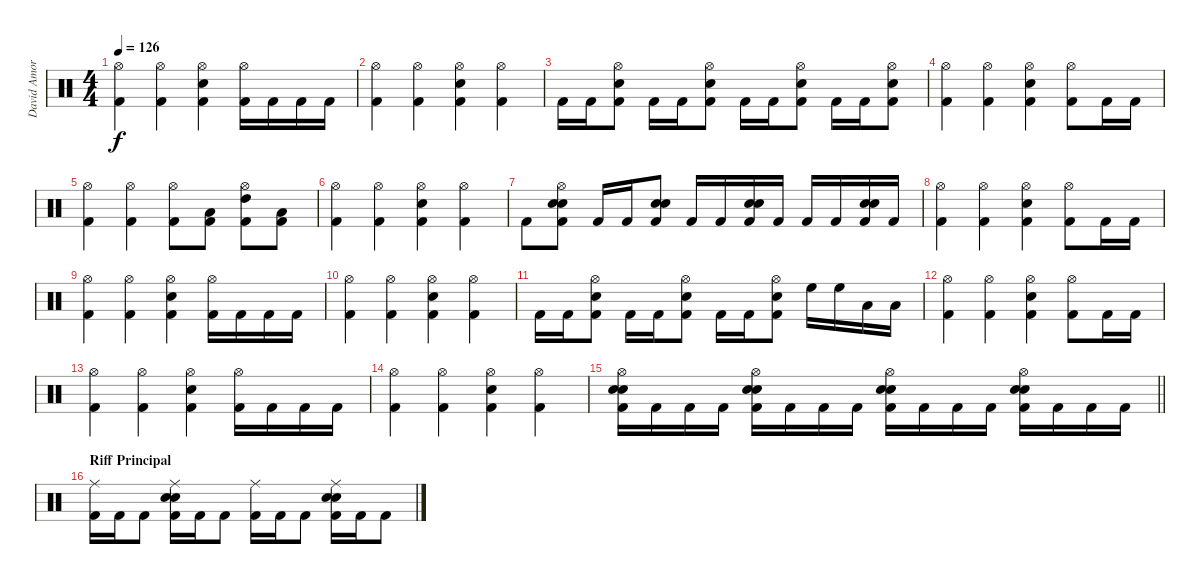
\track ("David Amore" "David Amor") {instrument percussion}
\staff {score}
\articulation defaults
\ts (4 4)
\tempo 126
\clef neutral
\ks c
("Hi-Hat (open)" "Kick (hit) 2").4{dy f} ("Hi-Hat (open)" "Kick (hit) 2").4 ("Hi-Hat (open)" "Snare (hit) 2" "Kick (hit) 2").4 ("Hi-Hat (open)" "Kick (hit) 2").16 "Kick (hit) 2".16 "Kick (hit) 2".16 "Kick (hit) 2".16 |
("Hi-Hat (open)" "Kick (hit) 2").4 ("Hi-Hat (open)" "Kick (hit) 2").4 ("Hi-Hat (open)" "Snare (hit) 2" "Kick (hit) 2").4 ("Hi-Hat (open)" "Kick (hit) 2").4 |
"Kick (hit) 2".16 "Kick (hit) 2".16 ("Hi-Hat (open)" "Electric Snare (hit)" "Kick (hit) 2").8 "Kick (hit) 2".16 "Kick (hit) 2".16 ("Hi-Hat (open)" "Electric Snare (hit)" "Kick (hit) 2").8 "Kick (hit) 2".16 "Kick (hit) 2".16 ("Hi-Hat (open)" "Electric Snare (hit)" "Kick (hit) 2").8 "Kick (hit) 2".16 "Kick (hit) 2".16 ("Hi-Hat (open)" "Electric Snare (hit)" "Kick (hit) 2").8 |
("Hi-Hat (open)" "Kick (hit) 2").4 ("Hi-Hat (open)" "Kick (hit) 2").4 ("Hi-Hat (open)" "Snare (hit) 2" "Kick (hit) 2").4 ("Hi-Hat (open)" "Kick (hit) 2").8 "Kick (hit) 2".16 "Kick (hit) 2".16 |
("Hi-Hat (open)" "Kick (hit) 2").4 ("Hi-Hat (open)" "Kick (hit) 2").4 ("Hi-Hat (open)" "Kick (hit) 2").8 ("Low Floor Tom (hit)" "Kick (hit) 2").8 ("Hi-Hat (open)" "High Tom (hit)" "Kick (hit) 2").8 ("Low Floor Tom (hit)" "Kick (hit) 2").8 |
("Hi-Hat (open)" "Kick (hit) 2").4 ("Hi-Hat (open)" "Kick (hit) 2").4 ("Hi-Hat (open)" "Snare (hit) 2" "Kick (hit) 2").4 ("Hi-Hat (open)" "Kick (hit) 2").4 |
"Kick (hit) 2".8 ("Hi-Hat (open)" "Snare (hit) 2" "Electric Snare (hit)" "Kick (hit) 2").8 "Kick (hit) 2".16 "Kick (hit) 2".16 ("Electric Snare (hit)" "Snare (hit) 2" "Kick (hit) 2").8 "Kick (hit) 2".16 "Kick (hit) 2".16 ("Electric Snare (hit)" "Snare (hit) 2" "Kick (hit) 2").16 "Kick (hit) 2".16 "Kick (hit) 2".16 "Kick (hit) 2".16 ("Electric Snare (hit)" "Snare (hit) 2" "Kick (hit) 2").16 "Kick (hit) 2".16 |
("Hi-Hat (open)" "Kick (hit) 2").4 ("Hi-Hat (open)" "Kick (hit) 2").4 ("Hi-Hat (open)" "Snare (hit) 2" "Kick (hit) 2").4 ("Hi-Hat (open)" "Kick (hit) 2").8 "Kick (hit) 2".16 "Kick (hit) 2".16 |
("Hi-Hat (open)" "Kick (hit) 2").4 ("Hi-Hat (open)" "Kick (hit) 2").4 ("Hi-Hat (open)" "Snare (hit) 2" "Kick (hit) 2").4 ("Hi-Hat (open)" "Kick (hit) 2").16 "Kick (hit) 2".16 "Kick (hit) 2".16 "Kick (hit) 2".16 |
("Hi-Hat (open)" "Kick (hit) 2").4 ("Hi-Hat (open)" "Kick (hit) 2").4 ("Hi-Hat (open)" "Snare (hit) 2" "Kick (hit) 2").4 ("Hi-Hat (open)" "Kick (hit) 2").4 |
"Kick (hit) 2".16 "Kick (hit) 2".16 ("Hi-Hat (open)" "Electric Snare (hit)" "Kick (hit) 2").8 "Kick (hit) 2".16 "Kick (hit) 2".16 ("Hi-Hat (open)" "Electric Snare (hit)" "Kick (hit) 2").8 "Kick (hit) 2".16 "Kick (hit) 2".16 ("Hi-Hat (open)" "Electric Snare (hit)" "Kick (hit) 2").8 "High Floor Tom (hit)".16 "High Floor Tom (hit)".16 "Low Tom (hit)".16 "Low Tom (hit)".16 |
("Hi-Hat (open)" "Kick (hit) 2").4 ("Hi-Hat (open)" "Kick (hit) 2").4 ("Hi-Hat (open)" "Snare (hit) 2" "Kick (hit) 2").4 ("Hi-Hat (open)" "Kick (hit) 2").8 "Kick (hit) 2".16 "Kick (hit) 2".16 |
("Hi-Hat (open)" "Kick (hit) 2").4 ("Hi-Hat (open)" "Kick (hit) 2").4 ("Hi-Hat (open)" "Snare (hit) 2" "Kick (hit) 2").4 ("Hi-Hat (open)" "Kick (hit) 2").16 "Kick (hit) 2".16 "Kick (hit) 2".16 "Kick (hit) 2".16 |
("Hi-Hat (open)" "Kick (hit) 2").4 ("Hi-Hat (open)" "Kick (hit) 2").4 ("Hi-Hat (open)" "Snare (hit) 2" "Kick (hit) 2").4 ("Hi-Hat (open)" "Kick (hit) 2").4 |
\barLineRight lightlight
("Hi-Hat (open)" "Electric Snare (hit)" "Snare (hit) 2" "Kick (hit) 2").16 "Kick (hit) 2".16 "Kick (hit) 2".16 "Kick (hit) 2".16 ("Hi-Hat (open)" "Electric Snare (hit)" "Snare (hit) 2" "Kick (hit) 2").16 "Kick (hit) 2".16 "Kick (hit) 2".16 "Kick (hit) 2".16 ("Hi-Hat (open)" "Electric Snare (hit)" "Snare (hit) 2" "Kick (hit) 2").16 "Kick (hit) 2".16 "Kick (hit) 2".16 "Kick (hit) 2".16 ("Hi-Hat (open)" "Electric Snare (hit)" "Snare (hit) 2" "Kick (hit) 2").16 "Kick (hit) 2".16 "Kick (hit) 2".16 "Kick (hit) 2".16 |
\section ("" "Riff Principal")
("Ride (middle)" "Kick (hit) 2").16 "Kick (hit) 2".16 "Kick (hit) 2".8 ("Ride (middle)" "Snare (hit) 2" "Electric Snare (hit)" "Kick (hit) 2").16 "Kick (hit) 2".16 "Kick (hit) 2".8 ("Ride (middle)" "Kick (hit) 2").16 "Kick (hit) 2".16 "Kick (hit) 2".8 ("Ride (middle)" "Snare (hit) 2" "Electric Snare (hit)" "Kick (hit) 2").16 "Kick (hit) 2".16 "Kick (hit) 2".8
